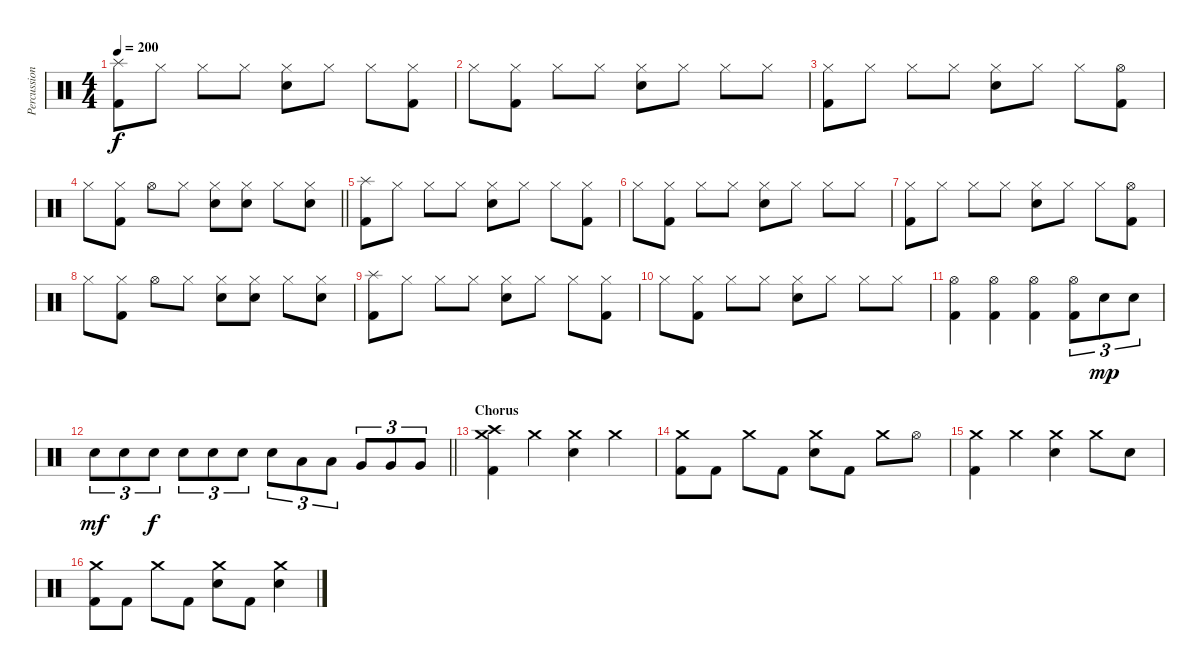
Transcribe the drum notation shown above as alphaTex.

\track ("Percussion" "Percussion") {instrument percussion}
\staff {score}
\articulation defaults
\ts (4 4)
\tempo 200
\clef neutral
\ks c
("Splash (hit)" "Kick (hit) 2").8{dy f} "Hi-Hat (closed)".8 "Hi-Hat (closed)".8 "Hi-Hat (closed)".8 ("Hi-Hat (closed)" "Electric Snare (hit)").8 "Hi-Hat (closed)".8 "Hi-Hat (closed)".8 ("Hi-Hat (closed)" "Kick (hit) 2").8 |
"Hi-Hat (closed)".8 ("Hi-Hat (closed)" "Kick (hit) 2").8 "Hi-Hat (closed)".8 "Hi-Hat (closed)".8 ("Hi-Hat (closed)" "Electric Snare (hit)").8 "Hi-Hat (closed)".8 "Hi-Hat (closed)".8 "Hi-Hat (closed)".8 |
("Hi-Hat (closed)" "Kick (hit) 2").8 "Hi-Hat (closed)".8 "Hi-Hat (closed)".8 "Hi-Hat (closed)".8 ("Hi-Hat (closed)" "Electric Snare (hit)").8 "Hi-Hat (closed)".8 "Hi-Hat (closed)".8 ("Hi-Hat (open)" "Kick (hit) 2").8 |
\barLineRight lightlight "Hi-Hat (closed)".8
("Hi-Hat (closed)" "Kick (hit) 2").8 "Hi-Hat (open)".8 "Hi-Hat (closed)".8 ("Hi-Hat (closed)" "Electric Snare (hit)").8 ("Hi-Hat (closed)" "Electric Snare (hit)").8 "Hi-Hat (closed)".8 ("Hi-Hat (closed)" "Electric Snare (hit)").8 |
("Splash (hit)" "Kick (hit) 2").8 "Hi-Hat (closed)".8 "Hi-Hat (closed)".8 "Hi-Hat (closed)".8 ("Hi-Hat (closed)" "Electric Snare (hit)").8 "Hi-Hat (closed)".8 "Hi-Hat (closed)".8 ("Hi-Hat (closed)" "Kick (hit) 2").8 |
"Hi-Hat (closed)".8 ("Hi-Hat (closed)" "Kick (hit) 2").8 "Hi-Hat (closed)".8 "Hi-Hat (closed)".8 ("Hi-Hat (closed)" "Electric Snare (hit)").8 "Hi-Hat (closed)".8 "Hi-Hat (closed)".8 "Hi-Hat (closed)".8 |
("Hi-Hat (closed)" "Kick (hit) 2").8 "Hi-Hat (closed)".8 "Hi-Hat (closed)".8 "Hi-Hat (closed)".8 ("Hi-Hat (closed)" "Electric Snare (hit)").8 "Hi-Hat (closed)".8 "Hi-Hat (closed)".8 ("Hi-Hat (open)" "Kick (hit) 2").8 |
"Hi-Hat (closed)".8 ("Hi-Hat (closed)" "Kick (hit) 2").8 "Hi-Hat (open)".8 "Hi-Hat (closed)".8 ("Hi-Hat (closed)" "Electric Snare (hit)").8 ("Hi-Hat (closed)" "Electric Snare (hit)").8 "Hi-Hat (closed)".8 ("Hi-Hat (closed)" "Electric Snare (hit)").8 |
("Splash (hit)" "Kick (hit) 2").8 "Hi-Hat (closed)".8 "Hi-Hat (closed)".8 "Hi-Hat (closed)".8 ("Hi-Hat (closed)" "Electric Snare (hit)").8 "Hi-Hat (closed)".8 "Hi-Hat (closed)".8 ("Hi-Hat (closed)" "Kick (hit) 2").8 |
"Hi-Hat (closed)".8 ("Hi-Hat (closed)" "Kick (hit) 2").8 "Hi-Hat (closed)".8 "Hi-Hat (closed)".8 ("Hi-Hat (closed)" "Electric Snare (hit)").8 "Hi-Hat (closed)".8 "Hi-Hat (closed)".8 "Hi-Hat (closed)".8 |
("Hi-Hat (open)" "Kick (hit) 2").4 ("Hi-Hat (open)" "Kick (hit) 2").4 ("Hi-Hat (open)" "Kick (hit) 2").4 ("Hi-Hat (open)" "Kick (hit) 2").8{tu (3 2)} "Electric Snare (hit)".8{tu (3 2) dy mp} "Electric Snare (hit)".8{tu (3 2)} |
\barLineRight lightlight "Electric Snare (hit)".8{tu (3 2) dy mf} "Electric Snare (hit)".8{tu (3 2)} "Electric Snare (hit)".8{tu (3 2) dy f} "Electric Snare (hit)".8{tu (3 2)} "Electric Snare (hit)".8{tu (3 2)} "Electric Snare (hit)".8{tu (3 2)} "Electric Snare (hit)".8{tu (3 2)} "Low Tom (hit)".8{tu (3 2)} "Low Tom (hit)".8{tu (3 2)} "Very Low Tom (hit)".8{tu (3 2)} "Very Low Tom (hit)".8{tu (3 2)} "Very Low Tom (hit)".8{tu (3 2)}
|
\section ("" "Chorus")
("Crash medium (hit)" "Crash high (hit)" "Kick (hit) 2").4 "Crash medium (hit)".4 ("Crash medium (hit)" "Electric Snare (hit)").4 "Crash medium (hit)".4 |
("Crash medium (hit)" "Kick (hit) 2").8 "Kick (hit) 2".8 "Crash medium (hit)".8 "Kick (hit) 2".8 ("Crash medium (hit)" "Electric Snare (hit)").8 "Kick (hit) 2".8 "Crash medium (hit)".8 "Hi-Hat (open)".8 |
("Crash medium (hit)" "Kick (hit) 2").4 "Crash medium (hit)".4 ("Crash medium (hit)" "Electric Snare (hit)").4 "Crash medium (hit)".8 "Electric Snare (hit)".8 |
("Crash medium (hit)" "Kick (hit) 2").8 "Kick (hit) 2".8 "Crash medium (hit)".8 "Kick (hit) 2".8 ("Crash medium (hit)" "Electric Snare (hit)").8 "Kick (hit) 2".8 ("Crash medium (hit)" "Electric Snare (hit)").4
